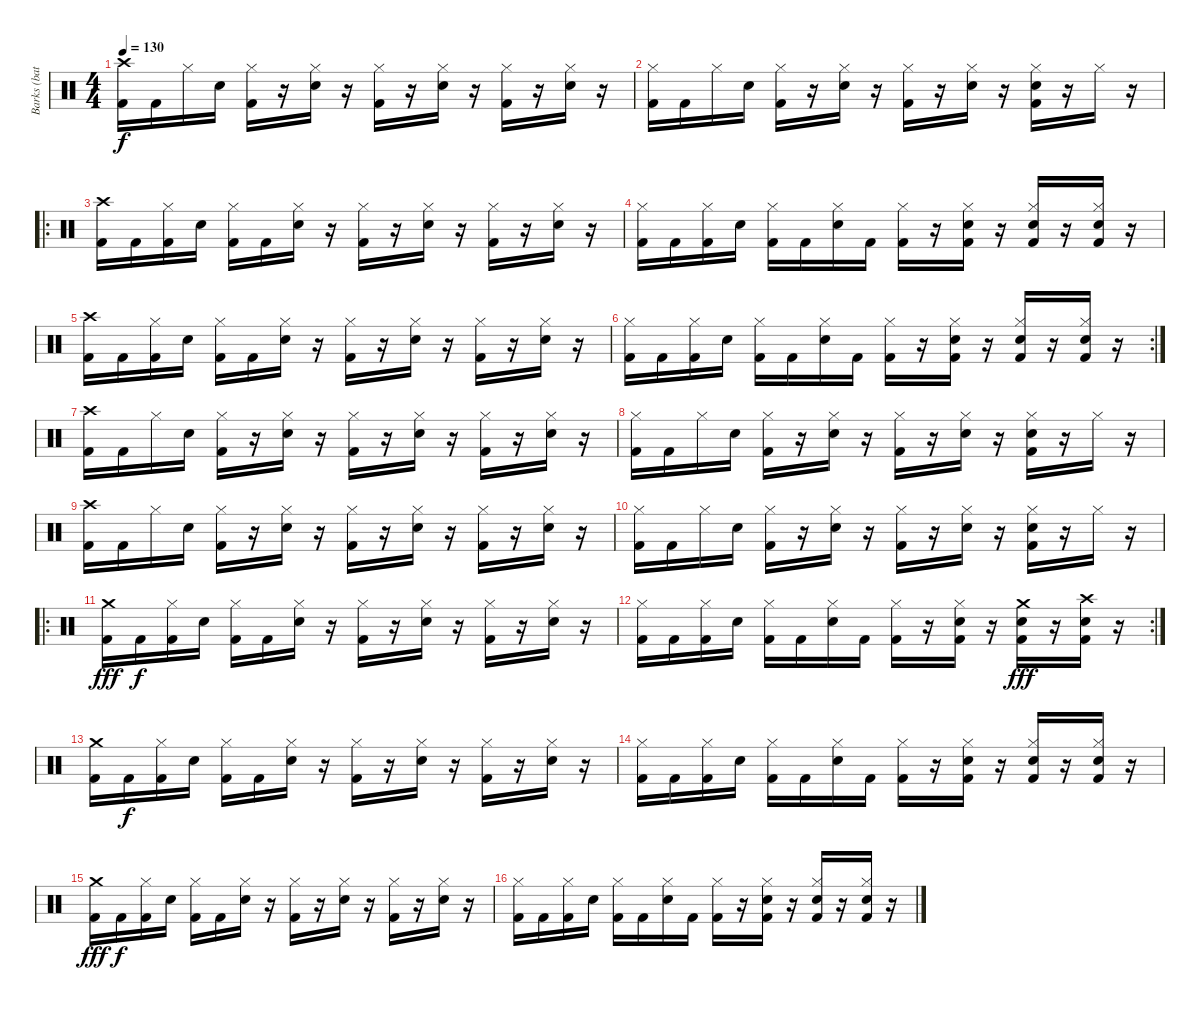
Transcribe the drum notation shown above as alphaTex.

\track ("Barks (batterie)" "Barks (bat") {instrument percussion}
\staff {score}
\articulation defaults
\ts (4 4)
\tempo 130
\clef neutral
\ks c
("Crash high (hit)" "Kick (hit) 2").16{dy f} "Kick (hit) 2".16 "Hi-Hat (closed)".16 "Electric Snare (hit)".16 ("Hi-Hat (closed)" "Kick (hit) 2").16 r.16 ("Hi-Hat (closed)" "Electric Snare (hit)").16 r.16 ("Hi-Hat (closed)" "Kick (hit) 2").16 r.16 ("Hi-Hat (closed)" "Electric Snare (hit)").16 r.16 ("Hi-Hat (closed)" "Kick (hit) 2").16 r.16 ("Hi-Hat (closed)" "Electric Snare (hit)").16 r.16 |
("Hi-Hat (closed)" "Kick (hit) 2").16 "Kick (hit) 2".16 "Hi-Hat (closed)".16 "Electric Snare (hit)".16 ("Hi-Hat (closed)" "Kick (hit) 2").16 r.16 ("Hi-Hat (closed)" "Electric Snare (hit)").16 r.16 ("Hi-Hat (closed)" "Kick (hit) 2").16 r.16 ("Hi-Hat (closed)" "Electric Snare (hit)").16 r.16 ("Hi-Hat (closed)" "Electric Snare (hit)" "Kick (hit) 2").16 r.16 "Hi-Hat (closed)".16 r.16 |
\ro
("Crash high (hit)" "Kick (hit) 2").16 "Kick (hit) 2".16 ("Hi-Hat (closed)" "Kick (hit) 2").16 "Electric Snare (hit)".16 ("Hi-Hat (closed)" "Kick (hit) 2").16 "Kick (hit) 2".16 ("Hi-Hat (closed)" "Electric Snare (hit)").16 r.16 ("Hi-Hat (closed)" "Kick (hit) 2").16 r.16 ("Hi-Hat (closed)" "Electric Snare (hit)").16 r.16 ("Hi-Hat (closed)" "Kick (hit) 2").16 r.16 ("Hi-Hat (closed)" "Electric Snare (hit)").16 r.16 |
("Hi-Hat (closed)" "Kick (hit) 2").16 "Kick (hit) 2".16 ("Hi-Hat (closed)" "Kick (hit) 2").16 "Electric Snare (hit)".16 ("Hi-Hat (closed)" "Kick (hit) 2").16 "Kick (hit) 2".16 ("Hi-Hat (closed)" "Electric Snare (hit)").16 "Kick (hit) 2".16 ("Hi-Hat (closed)" "Kick (hit) 2").16 r.16 ("Hi-Hat (closed)" "Electric Snare (hit)" "Kick (hit) 2").16 r.16 ("Hi-Hat (closed)" "Electric Snare (hit)" "Kick (hit) 2").16 r.16 ("Hi-Hat (closed)" "Electric Snare (hit)" "Kick (hit) 2").16 r.16 |
("Crash high (hit)" "Kick (hit) 2").16 "Kick (hit) 2".16 ("Hi-Hat (closed)" "Kick (hit) 2").16 "Electric Snare (hit)".16 ("Hi-Hat (closed)" "Kick (hit) 2").16 "Kick (hit) 2".16 ("Hi-Hat (closed)" "Electric Snare (hit)").16 r.16 ("Hi-Hat (closed)" "Kick (hit) 2").16 r.16 ("Hi-Hat (closed)" "Electric Snare (hit)").16 r.16 ("Hi-Hat (closed)" "Kick (hit) 2").16 r.16 ("Hi-Hat (closed)" "Electric Snare (hit)").16 r.16 |
\rc 2
("Hi-Hat (closed)" "Kick (hit) 2").16 "Kick (hit) 2".16 ("Hi-Hat (closed)" "Kick (hit) 2").16 "Electric Snare (hit)".16 ("Hi-Hat (closed)" "Kick (hit) 2").16 "Kick (hit) 2".16 ("Hi-Hat (closed)" "Electric Snare (hit)").16 "Kick (hit) 2".16 ("Hi-Hat (closed)" "Kick (hit) 2").16 r.16 ("Hi-Hat (closed)" "Electric Snare (hit)" "Kick (hit) 2").16 r.16 ("Hi-Hat (closed)" "Electric Snare (hit)" "Kick (hit) 2").16 r.16 ("Hi-Hat (closed)" "Electric Snare (hit)" "Kick (hit) 2").16 r.16 |
("Crash high (hit)" "Kick (hit) 2").16 "Kick (hit) 2".16 "Hi-Hat (closed)".16 "Electric Snare (hit)".16 ("Hi-Hat (closed)" "Kick (hit) 2").16 r.16 ("Hi-Hat (closed)" "Electric Snare (hit)").16 r.16 ("Hi-Hat (closed)" "Kick (hit) 2").16 r.16 ("Hi-Hat (closed)" "Electric Snare (hit)").16 r.16 ("Hi-Hat (closed)" "Kick (hit) 2").16 r.16 ("Hi-Hat (closed)" "Electric Snare (hit)").16 r.16 |
("Hi-Hat (closed)" "Kick (hit) 2").16 "Kick (hit) 2".16 "Hi-Hat (closed)".16 "Electric Snare (hit)".16 ("Hi-Hat (closed)" "Kick (hit) 2").16 r.16 ("Hi-Hat (closed)" "Electric Snare (hit)").16 r.16 ("Hi-Hat (closed)" "Kick (hit) 2").16 r.16 ("Hi-Hat (closed)" "Electric Snare (hit)").16 r.16 ("Hi-Hat (closed)" "Electric Snare (hit)" "Kick (hit) 2").16 r.16 "Hi-Hat (closed)".16 r.16 |
("Crash high (hit)" "Kick (hit) 2").16 "Kick (hit) 2".16 "Hi-Hat (closed)".16 "Electric Snare (hit)".16 ("Hi-Hat (closed)" "Kick (hit) 2").16 r.16 ("Hi-Hat (closed)" "Electric Snare (hit)").16 r.16 ("Hi-Hat (closed)" "Kick (hit) 2").16 r.16 ("Hi-Hat (closed)" "Electric Snare (hit)").16 r.16 ("Hi-Hat (closed)" "Kick (hit) 2").16 r.16 ("Hi-Hat (closed)" "Electric Snare (hit)").16 r.16 |
("Hi-Hat (closed)" "Kick (hit) 2").16 "Kick (hit) 2".16 "Hi-Hat (closed)".16 "Electric Snare (hit)".16 ("Hi-Hat (closed)" "Kick (hit) 2").16 r.16 ("Hi-Hat (closed)" "Electric Snare (hit)").16 r.16 ("Hi-Hat (closed)" "Kick (hit) 2").16 r.16 ("Hi-Hat (closed)" "Electric Snare (hit)").16 r.16 ("Hi-Hat (closed)" "Electric Snare (hit)" "Kick (hit) 2").16 r.16 "Hi-Hat (closed)".16 r.16 |
\ro
("Crash medium (hit)" "Kick (hit) 2").16{dy fff} "Kick (hit) 2".16{dy f} ("Hi-Hat (closed)" "Kick (hit) 2").16 "Electric Snare (hit)".16 ("Hi-Hat (closed)" "Kick (hit) 2").16 "Kick (hit) 2".16 ("Hi-Hat (closed)" "Electric Snare (hit)").16 r.16 ("Hi-Hat (closed)" "Kick (hit) 2").16 r.16 ("Hi-Hat (closed)" "Electric Snare (hit)").16 r.16 ("Hi-Hat (closed)" "Kick (hit) 2").16 r.16 ("Hi-Hat (closed)" "Electric Snare (hit)").16 r.16 |
\rc 2
("Hi-Hat (closed)" "Kick (hit) 2").16 "Kick (hit) 2".16 ("Hi-Hat (closed)" "Kick (hit) 2").16 "Electric Snare (hit)".16 ("Hi-Hat (closed)" "Kick (hit) 2").16 "Kick (hit) 2".16 ("Hi-Hat (closed)" "Electric Snare (hit)").16 "Kick (hit) 2".16 ("Hi-Hat (closed)" "Kick (hit) 2").16 r.16 ("Hi-Hat (closed)" "Electric Snare (hit)" "Kick (hit) 2").16 r.16 ("Crash medium (hit)" "Electric Snare (hit)" "Kick (hit) 2").16{dy fff} r.16 ("Crash high (hit)" "Electric Snare (hit)" "Kick (hit) 2").16 r.16 |
("Crash medium (hit)" "Kick (hit) 2").16 "Kick (hit) 2".16{dy f} ("Hi-Hat (closed)" "Kick (hit) 2").16 "Electric Snare (hit)".16 ("Hi-Hat (closed)" "Kick (hit) 2").16 "Kick (hit) 2".16 ("Hi-Hat (closed)" "Electric Snare (hit)").16 r.16 ("Hi-Hat (closed)" "Kick (hit) 2").16 r.16 ("Hi-Hat (closed)" "Electric Snare (hit)").16 r.16 ("Hi-Hat (closed)" "Kick (hit) 2").16 r.16 ("Hi-Hat (closed)" "Electric Snare (hit)").16 r.16 |
("Hi-Hat (closed)" "Kick (hit) 2").16 "Kick (hit) 2".16 ("Hi-Hat (closed)" "Kick (hit) 2").16 "Electric Snare (hit)".16 ("Hi-Hat (closed)" "Kick (hit) 2").16 "Kick (hit) 2".16 ("Hi-Hat (closed)" "Electric Snare (hit)").16 "Kick (hit) 2".16 ("Hi-Hat (closed)" "Kick (hit) 2").16 r.16 ("Hi-Hat (closed)" "Electric Snare (hit)" "Kick (hit) 2").16 r.16 ("Hi-Hat (closed)" "Electric Snare (hit)" "Kick (hit) 2").16 r.16 ("Hi-Hat (closed)" "Electric Snare (hit)" "Kick (hit) 2").16 r.16 |
("Crash medium (hit)" "Kick (hit) 2").16{dy fff volume 5} "Kick (hit) 2".16{dy f} ("Hi-Hat (closed)" "Kick (hit) 2").16 "Electric Snare (hit)".16 ("Hi-Hat (closed)" "Kick (hit) 2").16 "Kick (hit) 2".16 ("Hi-Hat (closed)" "Electric Snare (hit)").16 r.16 ("Hi-Hat (closed)" "Kick (hit) 2").16 r.16 ("Hi-Hat (closed)" "Electric Snare (hit)").16 r.16 ("Hi-Hat (closed)" "Kick (hit) 2").16 r.16 ("Hi-Hat (closed)" "Electric Snare (hit)").16 r.16 |
("Hi-Hat (closed)" "Kick (hit) 2").16 "Kick (hit) 2".16 ("Hi-Hat (closed)" "Kick (hit) 2").16 "Electric Snare (hit)".16 ("Hi-Hat (closed)" "Kick (hit) 2").16 "Kick (hit) 2".16 ("Hi-Hat (closed)" "Electric Snare (hit)").16 "Kick (hit) 2".16 ("Hi-Hat (closed)" "Kick (hit) 2").16 r.16 ("Hi-Hat (closed)" "Electric Snare (hit)" "Kick (hit) 2").16 r.16 ("Hi-Hat (closed)" "Electric Snare (hit)" "Kick (hit) 2").16 r.16 ("Hi-Hat (closed)" "Electric Snare (hit)" "Kick (hit) 2").16 r.16
